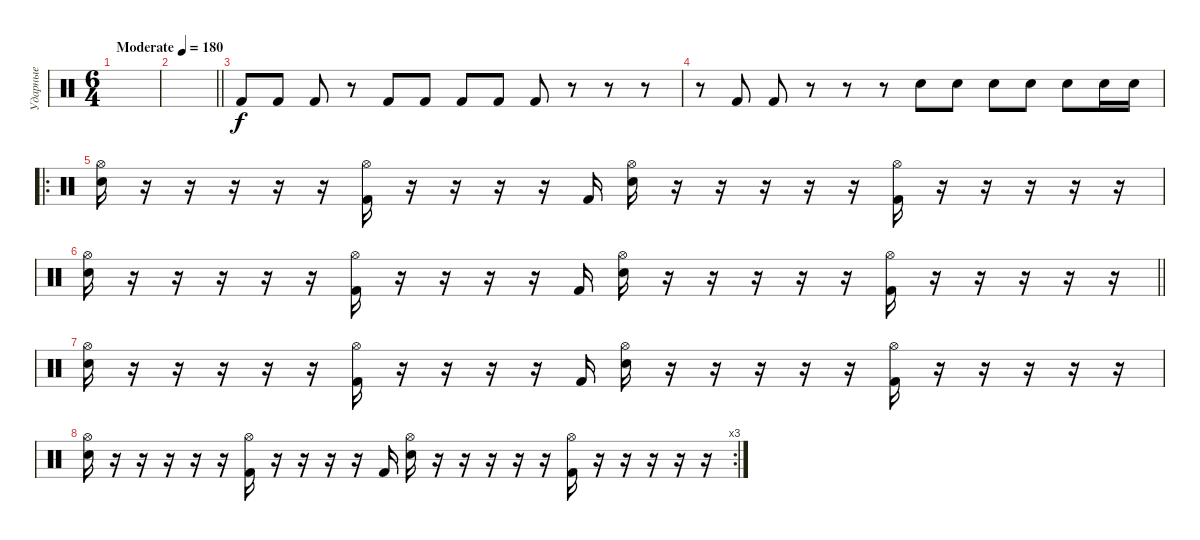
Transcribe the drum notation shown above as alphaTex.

\track ("Ударные" "Ударные") {mute instrument percussion}
\staff {score}
\articulation defaults
\ts (6 4)
\tempo (180 "Moderate")
\clef neutral
\ks c
|
\barLineRight lightlight
|
"Kick (hit) 2".8 "Kick (hit) 2".8 "Kick (hit) 2".8 r.8 "Kick (hit) 2".8 "Kick (hit) 2".8 "Kick (hit) 2".8 "Kick (hit) 2".8 "Kick (hit) 2".8 r.8 r.8 r.8 |
r.8 "Kick (hit) 2".8 "Kick (hit) 2".8 r.8 r.8 r.8 "Snare (hit) 2".8 "Snare (hit) 2".8 "Snare (hit) 2".8 "Snare (hit) 2".8 "Snare (hit) 2".8 "Snare (hit) 2".16 "Snare (hit) 2".16 |
\ro
("Hi-Hat (open)" "Snare (hit) 2").16 r.16 r.16 r.16 r.16 r.16 ("Hi-Hat (open)" "Kick (hit) 2").16 r.16 r.16 r.16 r.16 "Kick (hit) 2".16 ("Hi-Hat (open)" "Snare (hit) 2").16 r.16 r.16 r.16 r.16 r.16 ("Hi-Hat (open)" "Kick (hit) 2").16 r.16 r.16 r.16 r.16 r.16 |
\barLineRight lightlight
("Hi-Hat (open)" "Snare (hit) 2").16 r.16 r.16 r.16 r.16 r.16 ("Hi-Hat (open)" "Kick (hit) 2").16 r.16 r.16 r.16 r.16 "Kick (hit) 2".16 ("Hi-Hat (open)" "Snare (hit) 2").16 r.16 r.16 r.16 r.16 r.16 ("Hi-Hat (open)" "Kick (hit) 2").16 r.16 r.16 r.16 r.16 r.16 |
("Hi-Hat (open)" "Snare (hit) 2").16 r.16 r.16 r.16 r.16 r.16 ("Hi-Hat (open)" "Kick (hit) 2").16 r.16 r.16 r.16 r.16 "Kick (hit) 2".16 ("Hi-Hat (open)" "Snare (hit) 2").16 r.16 r.16 r.16 r.16 r.16 ("Hi-Hat (open)" "Kick (hit) 2").16 r.16 r.16 r.16 r.16 r.16 |
\rc 3
("Hi-Hat (open)" "Snare (hit) 2").16 r.16 r.16 r.16 r.16 r.16 ("Hi-Hat (open)" "Kick (hit) 2").16 r.16 r.16 r.16 r.16 "Kick (hit) 2".16 ("Hi-Hat (open)" "Snare (hit) 2").16 r.16 r.16 r.16 r.16 r.16 ("Hi-Hat (open)" "Kick (hit) 2").16 r.16 r.16 r.16 r.16 r.16
